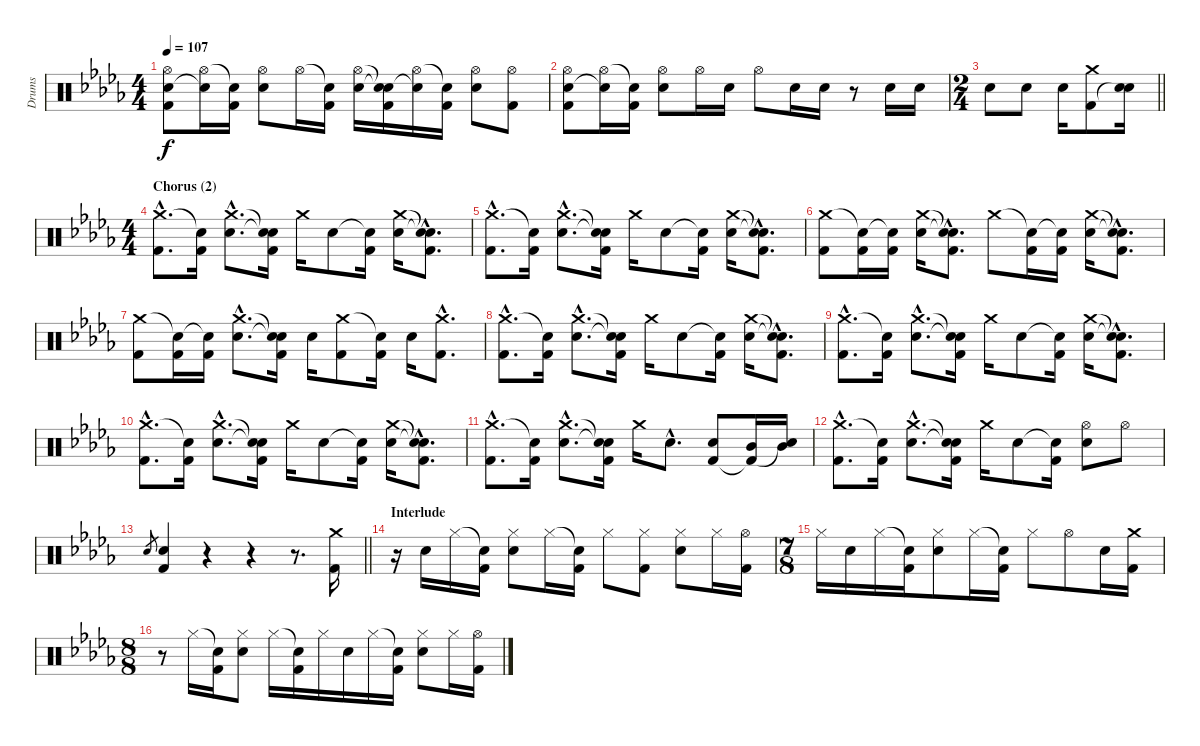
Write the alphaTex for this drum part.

\track ("Drums" "Drums") {instrument percussion}
\staff {score}
\articulation defaults
\ts (4 4)
\tempo 107
\clef neutral
\ks bbminor
("Hi-Hat (open)" "Electric Snare (hit)" "Kick (hit) 2").8{dy f} ("Hi-Hat (open)" "Snare (hit)"{t}).16 ("Snare (hit)"{t} "Kick (hit) 2").16 ("Hi-Hat (open)" "Electric Snare (hit)").8 "Hi-Hat (open)".16 ("Snare (hit)"{t} "Kick (hit) 2").16 ("Hi-Hat (open)" "Electric Snare (hit)").16 ("Snare (hit)"{t} "Snare (hit)"{t} "Kick (hit) 2").16 ("Hi-Hat (open)" "Snare (hit)"{t}).16 ("Snare (hit)"{t} "Kick (hit) 2").16 ("Hi-Hat (open)" "Electric Snare (hit)").8 ("Hi-Hat (open)" "Kick (hit) 2").8 |
("Hi-Hat (open)" "Electric Snare (hit)" "Kick (hit) 2").8 ("Hi-Hat (open)" "Snare (hit)"{t}).16 ("Snare (hit)"{t} "Kick (hit) 2").16 ("Hi-Hat (open)" "Electric Snare (hit)").8 "Hi-Hat (open)".16 "Electric Snare (hit)".16 "Hi-Hat (open)".8 "Electric Snare (hit)".16 "Electric Snare (hit)".16 r.8 "Electric Snare (hit)".16 "Electric Snare (hit)".16 |
\ts (2 4)
\barLineRight lightlight "Electric Snare (hit)".8 "Electric Snare (hit)".8 "Electric Snare (hit)".16
("Crash medium (hit)" "Kick (hit) 2").8 ("Electric Snare (hit)" "Snare (hit)"{t}).16 |
\ts (4 4)
\section ("" "Chorus (2)")
("Crash medium (hit)"{hac} "Kick (hit) 2"{hac}).8{d} ("Snare (hit)"{t} "Kick (hit) 2").16 ("Crash medium (hit)"{hac} "Electric Snare (hit)"{hac}).8{d} ("Snare (hit)"{t} "Snare (hit)"{t} "Kick (hit) 2").16 "Crash medium (hit)".16 "Electric Snare (hit)".8 ("Snare (hit)"{t} "Kick (hit) 2").16 ("Crash medium (hit)" "Electric Snare (hit)").16 ("Snare (hit)"{hac t} "Snare (hit)"{hac t} "Kick (hit) 2"{hac}).8{d} |
("Crash medium (hit)"{hac} "Kick (hit) 2"{hac}).8{d} ("Snare (hit)"{t} "Kick (hit) 2").16 ("Crash medium (hit)"{hac} "Electric Snare (hit)"{hac}).8{d} ("Snare (hit)"{t} "Snare (hit)"{t} "Kick (hit) 2").16 "Crash medium (hit)".16 "Electric Snare (hit)".8 ("Snare (hit)"{t} "Kick (hit) 2").16 ("Crash medium (hit)" "Electric Snare (hit)").16 ("Snare (hit)"{hac t} "Snare (hit)"{hac t} "Kick (hit) 2"{hac}).8{d} |
("Crash medium (hit)" "Kick (hit) 2").8 ("Snare (hit)"{t} "Kick (hit) 2").16 ("Snare (hit)"{t} "Kick (hit) 2").16 ("Crash medium (hit)" "Electric Snare (hit)").16 ("Snare (hit)"{hac t} "Snare (hit)"{hac t} "Kick (hit) 2"{hac}).8{d} "Crash medium (hit)".8 ("Snare (hit)"{t} "Kick (hit) 2").16 ("Snare (hit)"{t} "Kick (hit) 2").16 ("Crash medium (hit)" "Electric Snare (hit)").16 ("Snare (hit)"{hac t} "Snare (hit)"{hac t} "Kick (hit) 2"{hac}).8{d} |
("Crash medium (hit)" "Kick (hit) 2").8 ("Snare (hit)"{t} "Kick (hit) 2").16 ("Snare (hit)"{t} "Kick (hit) 2").16 ("Crash medium (hit)"{hac} "Electric Snare (hit)"{hac}).8{d} ("Snare (hit)"{t} "Snare (hit)"{t} "Kick (hit) 2").16 "Electric Snare (hit)".16 ("Crash medium (hit)" "Kick (hit) 2").8 ("Snare (hit)"{t} "Kick (hit) 2").16 "Electric Snare (hit)".16 ("Crash medium (hit)"{hac} "Kick (hit) 2"{hac}).8{d} |
("Crash medium (hit)"{hac} "Kick (hit) 2"{hac}).8{d} ("Snare (hit)"{t} "Kick (hit) 2").16 ("Crash medium (hit)"{hac} "Electric Snare (hit)"{hac}).8{d} ("Snare (hit)"{t} "Snare (hit)"{t} "Kick (hit) 2").16 "Crash medium (hit)".16 "Electric Snare (hit)".8 ("Snare (hit)"{t} "Kick (hit) 2").16 ("Crash medium (hit)" "Electric Snare (hit)").16 ("Snare (hit)"{hac t} "Snare (hit)"{hac t} "Kick (hit) 2"{hac}).8{d} |
("Crash medium (hit)"{hac} "Kick (hit) 2"{hac}).8{d} ("Snare (hit)"{t} "Kick (hit) 2").16 ("Crash medium (hit)"{hac} "Electric Snare (hit)"{hac}).8{d} ("Snare (hit)"{t} "Snare (hit)"{t} "Kick (hit) 2").16 "Crash medium (hit)".16 "Electric Snare (hit)".8 ("Snare (hit)"{t} "Kick (hit) 2").16 ("Crash medium (hit)" "Electric Snare (hit)").16 ("Snare (hit)"{hac t} "Snare (hit)"{hac t} "Kick (hit) 2"{hac}).8{d} |
("Crash medium (hit)"{hac} "Kick (hit) 2"{hac}).8{d} ("Snare (hit)"{t} "Kick (hit) 2").16 ("Crash medium (hit)"{hac} "Electric Snare (hit)"{hac}).8{d} ("Snare (hit)"{t} "Snare (hit)"{t} "Kick (hit) 2").16 "Crash medium (hit)".16 "Electric Snare (hit)".8 ("Snare (hit)"{t} "Kick (hit) 2").16 ("Crash medium (hit)" "Electric Snare (hit)").16 ("Snare (hit)"{hac t} "Snare (hit)"{hac t} "Kick (hit) 2"{hac}).8{d} |
("Crash medium (hit)"{hac} "Kick (hit) 2"{hac}).8{d} ("Snare (hit)"{t} "Kick (hit) 2").16 ("Crash medium (hit)"{hac} "Electric Snare (hit)"{hac}).8{d} ("Snare (hit)"{t} "Snare (hit)"{t} "Kick (hit) 2").16 "Crash medium (hit)".16 "Electric Snare (hit)"{hac}.8{d} ("Electric Snare (hit)" "Kick (hit) 2").8 ("Mid Tom (hit)" "Kick (hit) 2"{t}).16 ("Mid Tom (hit)" "Snare (hit)"{t}).16 |
("Crash medium (hit)"{hac} "Kick (hit) 2"{hac}).8{d} ("Snare (hit)"{t} "Kick (hit) 2").16 ("Crash medium (hit)"{hac} "Electric Snare (hit)"{hac}).8{d} ("Snare (hit)"{t} "Snare (hit)"{t} "Kick (hit) 2").16 "Crash medium (hit)".16 "Electric Snare (hit)".8 ("Snare (hit)"{t} "Kick (hit) 2").16 ("Hi-Hat (open)" "Electric Snare (hit)").8 "Hi-Hat (open)".8 |
\barLineRight lightlight "Electric Snare (hit)".8{gr}
("Electric Snare (hit)" "Kick (hit) 2").4 r.4 r.4 r.8{d} ("Crash medium (hit)" "Kick (hit) 2").16 |
\section ("" "Interlude")
r.16 "Electric Snare (hit)".16 "Hi-Hat (closed)".16 ("Snare (hit)"{t} "Kick (hit) 2").16 ("Hi-Hat (closed)" "Electric Snare (hit)").8 "Hi-Hat (closed)".16 ("Snare (hit)"{t} "Kick (hit) 2").16 "Hi-Hat (closed)".8 ("Hi-Hat (closed)" "Kick (hit) 2").8 ("Hi-Hat (closed)" "Electric Snare (hit)").8 "Hi-Hat (closed)".16 ("Hi-Hat (open)" "Kick (hit) 2").16 |
\ts (7 8)
"Hi-Hat (closed)".16 "Electric Snare (hit)".16 "Hi-Hat (closed)".16 ("Snare (hit)"{t} "Kick (hit) 2").16 ("Hi-Hat (closed)" "Electric Snare (hit)").8 "Hi-Hat (closed)".16 ("Snare (hit)"{t} "Kick (hit) 2").16 "Hi-Hat (closed)".8 "Hi-Hat (open)".8 "Electric Snare (hit)".16 ("Crash medium (hit)" "Kick (hit) 2").16 |
\ts (8 8)
r.8 "Hi-Hat (closed)".16 ("Snare (hit)"{t} "Kick (hit) 2").16 ("Hi-Hat (closed)" "Electric Snare (hit)").8 "Hi-Hat (closed)".16 ("Snare (hit)"{t} "Kick (hit) 2").16 "Hi-Hat (closed)".16 "Electric Snare (hit)".16 "Hi-Hat (closed)".16 ("Snare (hit)"{t} "Kick (hit) 2").16 ("Hi-Hat (closed)" "Electric Snare (hit)").8 "Hi-Hat (closed)".16 ("Hi-Hat (open)" "Kick (hit) 2").16
